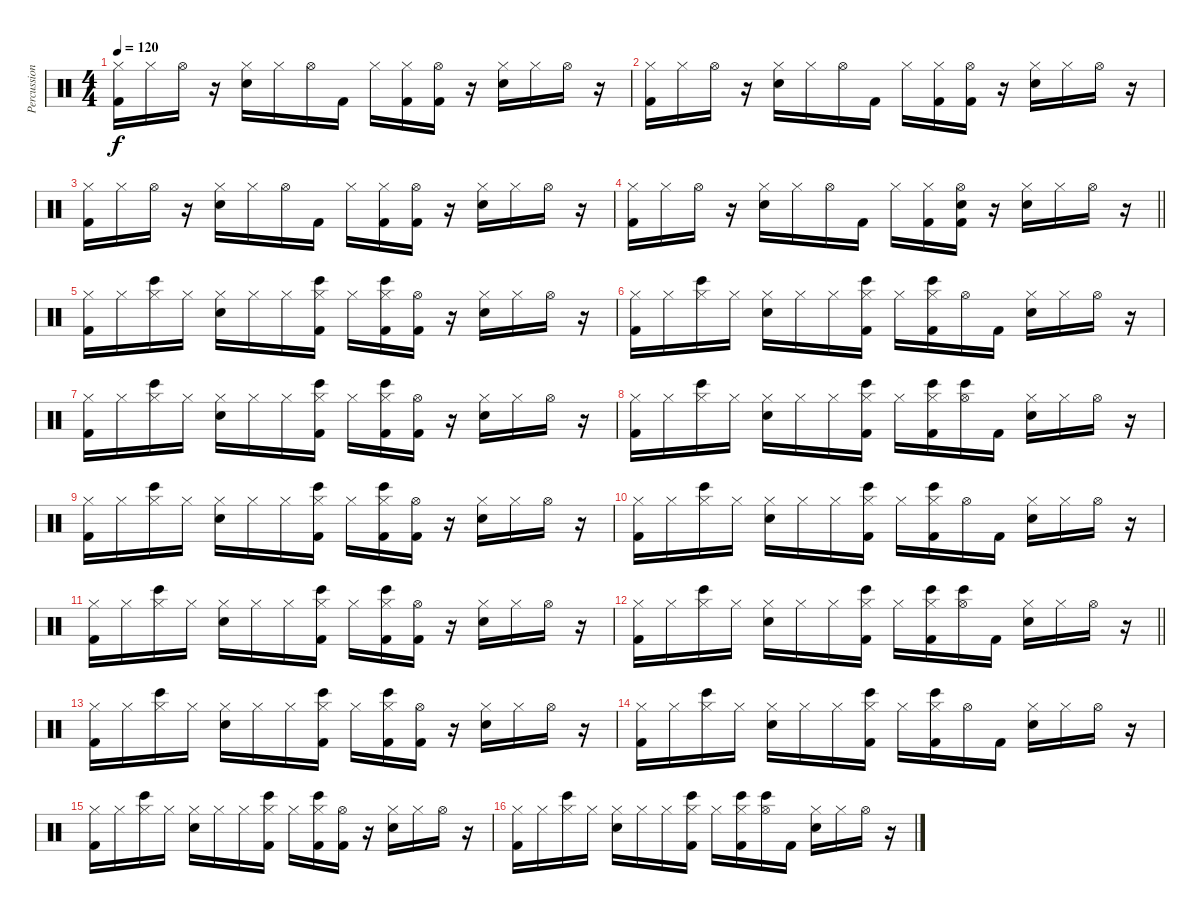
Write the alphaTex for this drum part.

\track ("Percussion" "Percussion") {instrument percussion}
\staff {score}
\articulation defaults
\ts (4 4)
\tempo 120
\clef neutral
\ks c
("Hi-Hat (closed)" "Kick (hit) 2").16{dy f} "Hi-Hat (closed)".16 "Hi-Hat (open)".16 r.16 ("Hi-Hat (closed)" "Snare (hit) 2").16 "Hi-Hat (closed)".16 "Hi-Hat (open)".16 "Kick (hit) 2".16 "Hi-Hat (closed)".16 ("Hi-Hat (closed)" "Kick (hit) 2").16 ("Hi-Hat (open)" "Kick (hit) 2").16 r.16 ("Hi-Hat (closed)" "Snare (hit) 2").16 "Hi-Hat (closed)".16 "Hi-Hat (open)".16 r.16 |
("Hi-Hat (closed)" "Kick (hit) 2").16 "Hi-Hat (closed)".16 "Hi-Hat (open)".16 r.16 ("Hi-Hat (closed)" "Snare (hit) 2").16 "Hi-Hat (closed)".16 "Hi-Hat (open)".16 "Kick (hit) 2".16 "Hi-Hat (closed)".16 ("Hi-Hat (closed)" "Kick (hit) 2").16 ("Hi-Hat (open)" "Kick (hit) 2").16 r.16 ("Hi-Hat (closed)" "Snare (hit) 2").16 "Hi-Hat (closed)".16 "Hi-Hat (open)".16 r.16 |
("Hi-Hat (closed)" "Kick (hit) 2").16 "Hi-Hat (closed)".16 "Hi-Hat (open)".16 r.16 ("Hi-Hat (closed)" "Snare (hit) 2").16 "Hi-Hat (closed)".16 "Hi-Hat (open)".16 "Kick (hit) 2".16 "Hi-Hat (closed)".16 ("Hi-Hat (closed)" "Kick (hit) 2").16 ("Hi-Hat (open)" "Kick (hit) 2").16 r.16 ("Hi-Hat (closed)" "Snare (hit) 2").16 "Hi-Hat (closed)".16 "Hi-Hat (open)".16 r.16 |
\barLineRight lightlight
("Hi-Hat (closed)" "Kick (hit) 2").16 "Hi-Hat (closed)".16 "Hi-Hat (open)".16 r.16 ("Hi-Hat (closed)" "Snare (hit) 2").16 "Hi-Hat (closed)".16 "Hi-Hat (open)".16 "Kick (hit) 2".16 "Hi-Hat (closed)".16 ("Hi-Hat (closed)" "Kick (hit) 2").16 ("Hi-Hat (open)" "Snare (hit) 2" "Kick (hit) 2").16 r.16 ("Hi-Hat (closed)" "Snare (hit) 2").16 "Hi-Hat (closed)".16 "Hi-Hat (open)".16 r.16 |
("Hi-Hat (closed)" "Kick (hit) 2").16 "Hi-Hat (closed)".16 ("Hi-Hat (closed)" "Bongo High (hit)").16 "Hi-Hat (closed)".16 ("Hi-Hat (closed)" "Snare (hit) 2").16 "Hi-Hat (closed)".16 "Hi-Hat (closed)".16 ("Hi-Hat (closed)" "Bongo High (hit)" "Kick (hit) 2").16 "Hi-Hat (closed)".16 ("Hi-Hat (closed)" "Bongo High (hit)" "Kick (hit) 2").16 ("Hi-Hat (open)" "Kick (hit) 2").16 r.16 ("Hi-Hat (closed)" "Snare (hit) 2").16 "Hi-Hat (closed)".16 "Hi-Hat (open)".16 r.16 |
("Hi-Hat (closed)" "Kick (hit) 2").16 "Hi-Hat (closed)".16 ("Hi-Hat (closed)" "Bongo High (hit)").16 "Hi-Hat (closed)".16 ("Hi-Hat (closed)" "Snare (hit) 2").16 "Hi-Hat (closed)".16 "Hi-Hat (closed)".16 ("Hi-Hat (closed)" "Bongo High (hit)" "Kick (hit) 2").16 "Hi-Hat (closed)".16 ("Hi-Hat (closed)" "Bongo High (hit)" "Kick (hit) 2").16 "Hi-Hat (open)".16 "Kick (hit) 2".16 ("Hi-Hat (closed)" "Snare (hit) 2").16 "Hi-Hat (closed)".16 "Hi-Hat (open)".16 r.16 |
("Hi-Hat (closed)" "Kick (hit) 2").16 "Hi-Hat (closed)".16 ("Hi-Hat (closed)" "Bongo High (hit)").16 "Hi-Hat (closed)".16 ("Hi-Hat (closed)" "Snare (hit) 2").16 "Hi-Hat (closed)".16 "Hi-Hat (closed)".16 ("Hi-Hat (closed)" "Bongo High (hit)" "Kick (hit) 2").16 "Hi-Hat (closed)".16 ("Hi-Hat (closed)" "Bongo High (hit)" "Kick (hit) 2").16 ("Hi-Hat (open)" "Kick (hit) 2").16 r.16 ("Hi-Hat (closed)" "Snare (hit) 2").16 "Hi-Hat (closed)".16 "Hi-Hat (open)".16 r.16 |
("Hi-Hat (closed)" "Kick (hit) 2").16 "Hi-Hat (closed)".16 ("Hi-Hat (closed)" "Bongo High (hit)").16 "Hi-Hat (closed)".16 ("Hi-Hat (closed)" "Snare (hit) 2").16 "Hi-Hat (closed)".16 "Hi-Hat (closed)".16 ("Hi-Hat (closed)" "Bongo High (hit)" "Kick (hit) 2").16 "Hi-Hat (closed)".16 ("Hi-Hat (closed)" "Bongo High (hit)" "Kick (hit) 2").16 ("Hi-Hat (open)" "Bongo High (hit)").16 "Kick (hit) 2".16 ("Hi-Hat (closed)" "Snare (hit) 2").16 "Hi-Hat (closed)".16 "Hi-Hat (open)".16 r.16 |
("Hi-Hat (closed)" "Kick (hit) 2").16 "Hi-Hat (closed)".16 ("Hi-Hat (closed)" "Bongo High (hit)").16 "Hi-Hat (closed)".16 ("Hi-Hat (closed)" "Snare (hit) 2").16 "Hi-Hat (closed)".16 "Hi-Hat (closed)".16 ("Hi-Hat (closed)" "Bongo High (hit)" "Kick (hit) 2").16 "Hi-Hat (closed)".16 ("Hi-Hat (closed)" "Bongo High (hit)" "Kick (hit) 2").16 ("Hi-Hat (open)" "Kick (hit) 2").16 r.16 ("Hi-Hat (closed)" "Snare (hit) 2").16 "Hi-Hat (closed)".16 "Hi-Hat (open)".16 r.16 |
("Hi-Hat (closed)" "Kick (hit) 2").16 "Hi-Hat (closed)".16 ("Hi-Hat (closed)" "Bongo High (hit)").16 "Hi-Hat (closed)".16 ("Hi-Hat (closed)" "Snare (hit) 2").16 "Hi-Hat (closed)".16 "Hi-Hat (closed)".16 ("Hi-Hat (closed)" "Bongo High (hit)" "Kick (hit) 2").16 "Hi-Hat (closed)".16 ("Hi-Hat (closed)" "Bongo High (hit)" "Kick (hit) 2").16 "Hi-Hat (open)".16 "Kick (hit) 2".16 ("Hi-Hat (closed)" "Snare (hit) 2").16 "Hi-Hat (closed)".16 "Hi-Hat (open)".16 r.16 |
("Hi-Hat (closed)" "Kick (hit) 2").16 "Hi-Hat (closed)".16 ("Hi-Hat (closed)" "Bongo High (hit)").16 "Hi-Hat (closed)".16 ("Hi-Hat (closed)" "Snare (hit) 2").16 "Hi-Hat (closed)".16 "Hi-Hat (closed)".16 ("Hi-Hat (closed)" "Bongo High (hit)" "Kick (hit) 2").16 "Hi-Hat (closed)".16 ("Hi-Hat (closed)" "Bongo High (hit)" "Kick (hit) 2").16 ("Hi-Hat (open)" "Kick (hit) 2").16 r.16 ("Hi-Hat (closed)" "Snare (hit) 2").16 "Hi-Hat (closed)".16 "Hi-Hat (open)".16 r.16 |
\barLineRight lightlight
("Hi-Hat (closed)" "Kick (hit) 2").16 "Hi-Hat (closed)".16 ("Hi-Hat (closed)" "Bongo High (hit)").16 "Hi-Hat (closed)".16 ("Hi-Hat (closed)" "Snare (hit) 2").16 "Hi-Hat (closed)".16 "Hi-Hat (closed)".16 ("Hi-Hat (closed)" "Bongo High (hit)" "Kick (hit) 2").16 "Hi-Hat (closed)".16 ("Hi-Hat (closed)" "Bongo High (hit)" "Kick (hit) 2").16 ("Hi-Hat (open)" "Bongo High (hit)").16 "Kick (hit) 2".16 ("Hi-Hat (closed)" "Snare (hit) 2").16 "Hi-Hat (closed)".16 "Hi-Hat (open)".16 r.16 |
("Hi-Hat (closed)" "Kick (hit) 2").16 "Hi-Hat (closed)".16 ("Hi-Hat (closed)" "Bongo High (hit)").16 "Hi-Hat (closed)".16 ("Hi-Hat (closed)" "Snare (hit) 2").16 "Hi-Hat (closed)".16 "Hi-Hat (closed)".16 ("Hi-Hat (closed)" "Bongo High (hit)" "Kick (hit) 2").16 "Hi-Hat (closed)".16 ("Hi-Hat (closed)" "Bongo High (hit)" "Kick (hit) 2").16 ("Hi-Hat (open)" "Kick (hit) 2").16 r.16 ("Hi-Hat (closed)" "Snare (hit) 2").16 "Hi-Hat (closed)".16 "Hi-Hat (open)".16 r.16 |
("Hi-Hat (closed)" "Kick (hit) 2").16 "Hi-Hat (closed)".16 ("Hi-Hat (closed)" "Bongo High (hit)").16 "Hi-Hat (closed)".16 ("Hi-Hat (closed)" "Snare (hit) 2").16 "Hi-Hat (closed)".16 "Hi-Hat (closed)".16 ("Hi-Hat (closed)" "Bongo High (hit)" "Kick (hit) 2").16 "Hi-Hat (closed)".16 ("Hi-Hat (closed)" "Bongo High (hit)" "Kick (hit) 2").16 "Hi-Hat (open)".16 "Kick (hit) 2".16 ("Hi-Hat (closed)" "Snare (hit) 2").16 "Hi-Hat (closed)".16 "Hi-Hat (open)".16 r.16 |
("Hi-Hat (closed)" "Kick (hit) 2").16 "Hi-Hat (closed)".16 ("Hi-Hat (closed)" "Bongo High (hit)").16 "Hi-Hat (closed)".16 ("Hi-Hat (closed)" "Snare (hit) 2").16 "Hi-Hat (closed)".16 "Hi-Hat (closed)".16 ("Hi-Hat (closed)" "Bongo High (hit)" "Kick (hit) 2").16 "Hi-Hat (closed)".16 ("Hi-Hat (closed)" "Bongo High (hit)" "Kick (hit) 2").16 ("Hi-Hat (open)" "Kick (hit) 2").16 r.16 ("Hi-Hat (closed)" "Snare (hit) 2").16 "Hi-Hat (closed)".16 "Hi-Hat (open)".16 r.16 |
("Hi-Hat (closed)" "Kick (hit) 2").16 "Hi-Hat (closed)".16 ("Hi-Hat (closed)" "Bongo High (hit)").16 "Hi-Hat (closed)".16 ("Hi-Hat (closed)" "Snare (hit) 2").16 "Hi-Hat (closed)".16 "Hi-Hat (closed)".16 ("Hi-Hat (closed)" "Bongo High (hit)" "Kick (hit) 2").16 "Hi-Hat (closed)".16 ("Hi-Hat (closed)" "Bongo High (hit)" "Kick (hit) 2").16 ("Hi-Hat (open)" "Bongo High (hit)").16 "Kick (hit) 2".16 ("Hi-Hat (closed)" "Snare (hit) 2").16 "Hi-Hat (closed)".16 "Hi-Hat (open)".16 r.16
